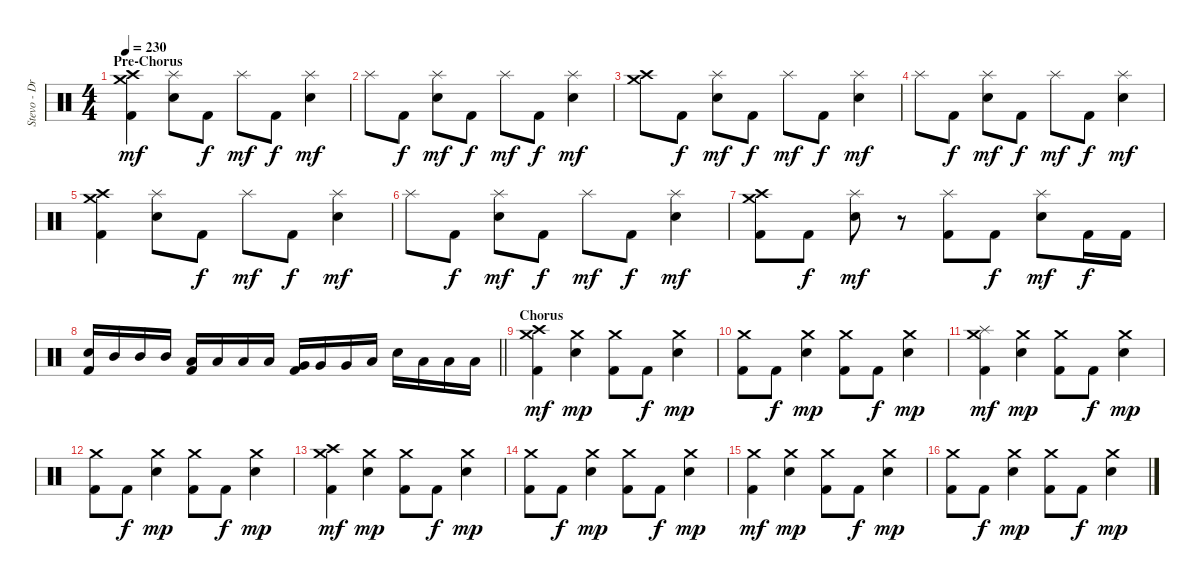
\track ("Stevo - Drums" "Stevo - Dr") {instrument percussion}
\staff {score}
\articulation defaults
\ts (4 4)
\section ("" "Pre-Chorus")
\tempo 230
\clef neutral
\ks c
("Crash high (hit)" "Crash medium (hit)" "Kick (hit) 2").4{dy mf} ("Splash (hit)" "Electric Snare (hit)").8 "Kick (hit) 2".8{dy f} "Splash (hit)".8{dy mf} "Kick (hit) 2".8{dy f} ("Splash (hit)" "Electric Snare (hit)").4{dy mf} |
"Splash (hit)".8 "Kick (hit) 2".8{dy f} ("Splash (hit)" "Electric Snare (hit)").8{dy mf} "Kick (hit) 2".8{dy f} "Splash (hit)".8{dy mf} "Kick (hit) 2".8{dy f} ("Splash (hit)" "Electric Snare (hit)").4{dy mf} |
("Crash high (hit)" "Crash medium (hit)").8 "Kick (hit) 2".8{dy f} ("Splash (hit)" "Electric Snare (hit)").8{dy mf} "Kick (hit) 2".8{dy f} "Splash (hit)".8{dy mf} "Kick (hit) 2".8{dy f} ("Splash (hit)" "Electric Snare (hit)").4{dy mf} |
"Splash (hit)".8 "Kick (hit) 2".8{dy f} ("Splash (hit)" "Electric Snare (hit)").8{dy mf} "Kick (hit) 2".8{dy f} "Splash (hit)".8{dy mf} "Kick (hit) 2".8{dy f} ("Splash (hit)" "Electric Snare (hit)").4{dy mf} |
("Crash high (hit)" "Crash medium (hit)" "Kick (hit) 2").4 ("Splash (hit)" "Electric Snare (hit)").8 "Kick (hit) 2".8{dy f} "Splash (hit)".8{dy mf} "Kick (hit) 2".8{dy f} ("Splash (hit)" "Electric Snare (hit)").4{dy mf} |
"Splash (hit)".8 "Kick (hit) 2".8{dy f} ("Splash (hit)" "Electric Snare (hit)").8{dy mf} "Kick (hit) 2".8{dy f} "Splash (hit)".8{dy mf} "Kick (hit) 2".8{dy f} ("Splash (hit)" "Electric Snare (hit)").4{dy mf} |
("Crash high (hit)" "Crash medium (hit)" "Kick (hit) 2").8 "Kick (hit) 2".8{dy f} ("Splash (hit)" "Electric Snare (hit)").8{dy mf} r.8 ("Splash (hit)" "Kick (hit) 2").8 "Kick (hit) 2".8{dy f} ("Splash (hit)" "Electric Snare (hit)").8{dy mf} "Kick (hit) 2".16{dy f} "Kick (hit) 2".16 |
\barLineRight lightlight
("Electric Snare (hit)" "Kick (hit) 2").16 "Mid Tom (hit)".16 "Mid Tom (hit)".16 "Mid Tom (hit)".16 ("Low Tom (hit)" "Kick (hit) 2").16 "Low Tom (hit)".16 "Low Tom (hit)".16 "Low Tom (hit)".16 ("Very Low Tom (hit)" "Kick (hit) 2").16 "Very Low Tom (hit)".16 "Very Low Tom (hit)".16 "Low Tom (hit)".16 "Electric Snare (hit)".16 "Low Tom (hit)".16 "Low Tom (hit)".16 "Low Tom (hit)".16 |
\section ("" "Chorus")
("Crash high (hit)" "Crash medium (hit)" "Kick (hit) 2").4{dy mf} ("Crash medium (hit)" "Electric Snare (hit)").4{dy mp} ("Crash medium (hit)" "Kick (hit) 2").8 "Kick (hit) 2".8{dy f} ("Crash medium (hit)" "Electric Snare (hit)").4{dy mp} |
("Crash medium (hit)" "Kick (hit) 2").8 "Kick (hit) 2".8{dy f} ("Crash medium (hit)" "Electric Snare (hit)").4{dy mp} ("Crash medium (hit)" "Kick (hit) 2").8 "Kick (hit) 2".8{dy f} ("Crash medium (hit)" "Electric Snare (hit)").4{dy mp} |
("Crash medium (hit)" "Splash (hit)" "Kick (hit) 2").4{dy mf} ("Crash medium (hit)" "Electric Snare (hit)").4{dy mp} ("Crash medium (hit)" "Kick (hit) 2").8 "Kick (hit) 2".8{dy f} ("Crash medium (hit)" "Electric Snare (hit)").4{dy mp} |
("Crash medium (hit)" "Kick (hit) 2").8 "Kick (hit) 2".8{dy f} ("Crash medium (hit)" "Electric Snare (hit)").4{dy mp} ("Crash medium (hit)" "Kick (hit) 2").8 "Kick (hit) 2".8{dy f} ("Crash medium (hit)" "Electric Snare (hit)").4{dy mp} |
("Crash high (hit)" "Crash medium (hit)" "Kick (hit) 2").4{dy mf} ("Crash medium (hit)" "Electric Snare (hit)").4{dy mp} ("Crash medium (hit)" "Kick (hit) 2").8 "Kick (hit) 2".8{dy f} ("Crash medium (hit)" "Electric Snare (hit)").4{dy mp} |
("Crash medium (hit)" "Kick (hit) 2").8 "Kick (hit) 2".8{dy f} ("Crash medium (hit)" "Electric Snare (hit)").4{dy mp} ("Crash medium (hit)" "Kick (hit) 2").8 "Kick (hit) 2".8{dy f} ("Crash medium (hit)" "Electric Snare (hit)").4{dy mp} |
("Crash medium (hit)" "Kick (hit) 2").4{dy mf} ("Crash medium (hit)" "Electric Snare (hit)").4{dy mp} ("Crash medium (hit)" "Kick (hit) 2").8 "Kick (hit) 2".8{dy f} ("Crash medium (hit)" "Electric Snare (hit)").4{dy mp} |
("Crash medium (hit)" "Kick (hit) 2").8 "Kick (hit) 2".8{dy f} ("Crash medium (hit)" "Electric Snare (hit)").4{dy mp} ("Crash medium (hit)" "Kick (hit) 2").8 "Kick (hit) 2".8{dy f} ("Crash medium (hit)" "Electric Snare (hit)").4{dy mp}
